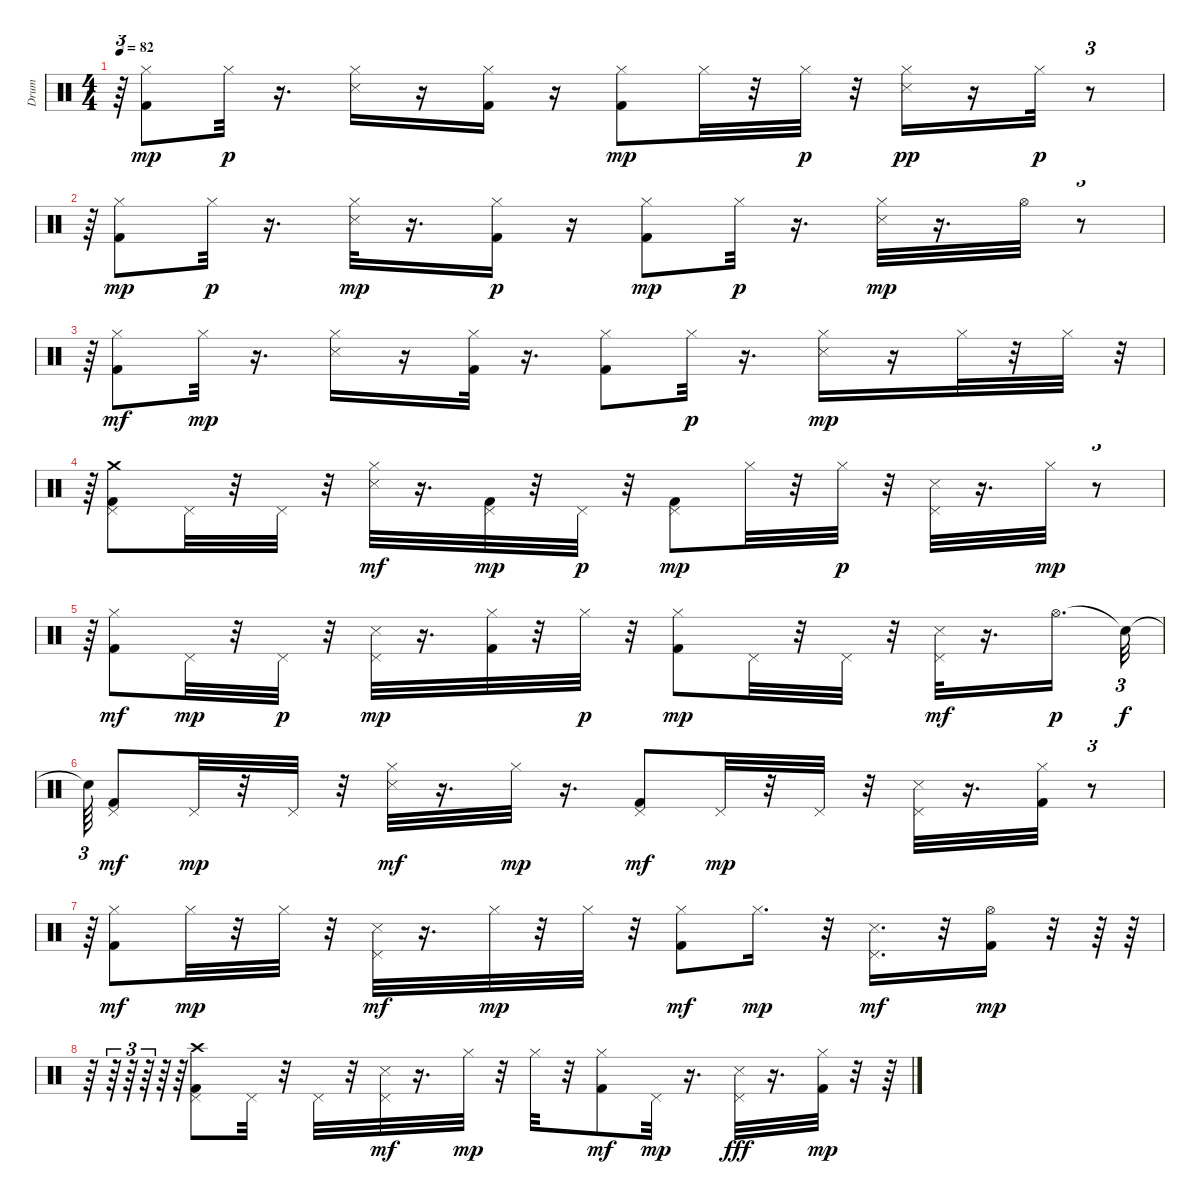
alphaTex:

\track ("Drum" "Drum") {instrument percussion}
\staff {score}
\articulation defaults
\ts (4 4)
\tempo 82
\clef neutral
\ks c
r.64{tu (3 2) dy pp} ("Kick (hit) 2" "Hi-Hat (closed)").8{dy mp} "Hi-Hat (closed)".32{dy p} r.16{d} ("Snare (side stick) 3" "Hi-Hat (closed)").16 r.16 ("Kick (hit) 2" "Hi-Hat (closed)").16 r.16 ("Kick (hit) 2" "Hi-Hat (closed)").8{dy mp} "Hi-Hat (closed)".32 r.32 "Hi-Hat (closed)".32{dy p} r.32 ("Snare (side stick) 3" "Hi-Hat (closed)").16{dy pp} r.16 "Hi-Hat (closed)".32{dy p} r.8{tu (3 2)} |
r.64{tu (3 2)} ("Kick (hit) 2" "Hi-Hat (closed)").8{dy mp} "Hi-Hat (closed)".32{dy p} r.16{d} ("Snare (side stick) 3" "Hi-Hat (closed)").32{dy mp} r.16{d} ("Kick (hit) 2" "Hi-Hat (closed)").16{dy p} r.16 ("Kick (hit) 2" "Hi-Hat (closed)").8{dy mp} "Hi-Hat (closed)".32{dy p} r.16{d} ("Snare (side stick) 3" "Hi-Hat (closed)").32{dy mp} r.16{d} "Hi-Hat (open)".32 r.8{tu (3 2)} |
r.64{tu (3 2)} ("Kick (hit) 2" "Hi-Hat (closed)").8{dy mf} "Hi-Hat (closed)".32{dy mp} r.16{d} ("Snare (side stick) 3" "Hi-Hat (closed)").16 r.16 ("Kick (hit) 2" "Hi-Hat (closed)").32 r.16{d} ("Kick (hit) 2" "Hi-Hat (closed)").8 "Hi-Hat (closed)".32{dy p} r.16{d} ("Snare (side stick) 3" "Hi-Hat (closed)").16{dy mp} r.16 "Hi-Hat (closed)".32 r.32 "Hi-Hat (closed)".32 r.32{tu (3 2)} |
r.64{tu (3 2)} ("Kick (hit) 2" "Pedal Hi-Hat (hit)" "Crash medium (hit)").8 "Pedal Hi-Hat (hit)".32 r.32 "Pedal Hi-Hat (hit)".32 r.32 ("Snare (side stick) 3" "Hi-Hat (closed)").32{dy mf} r.16{d} ("Kick (hit) 2" "Pedal Hi-Hat (hit)").32{dy mp} r.32 "Pedal Hi-Hat (hit)".32{dy p} r.32 ("Kick (hit) 2" "Pedal Hi-Hat (hit)").8{dy mp} "Hi-Hat (closed)".32 r.32 "Hi-Hat (closed)".32{dy p} r.32 ("Snare (side stick) 3" "Pedal Hi-Hat (hit)").32 r.16{d} "Hi-Hat (closed)".32{dy mp} r.8{tu (3 2)} |
r.64{tu (3 2)} ("Kick (hit) 2" "Hi-Hat (closed)").8{dy mf} "Pedal Hi-Hat (hit)".32{dy mp} r.32 "Pedal Hi-Hat (hit)".32{dy p} r.32 ("Snare (side stick) 3" "Pedal Hi-Hat (hit)").32{dy mp} r.16{d} ("Kick (hit) 2" "Hi-Hat (closed)").32 r.32 "Hi-Hat (closed)".32{dy p} r.32 ("Kick (hit) 2" "Hi-Hat (closed)").8{dy mp} "Pedal Hi-Hat (hit)".32 r.32 "Pedal Hi-Hat (hit)".32 r.32 ("Snare (side stick) 3" "Pedal Hi-Hat (hit)").32{dy mf} r.16{d} "Hi-Hat (open)".16{d dy p} "Snare (hit)"{t}.32{tu (3 2) dy f} |
"Snare (hit)"{t}.64{tu (3 2)} ("Kick (hit) 2" "Pedal Hi-Hat (hit)").8{dy mf} "Pedal Hi-Hat (hit)".32{dy mp} r.32 "Pedal Hi-Hat (hit)".32 r.32 ("Snare (side stick) 3" "Hi-Hat (closed)").32{dy mf} r.16{d} "Hi-Hat (closed)".32{dy mp} r.16{d} ("Kick (hit) 2" "Pedal Hi-Hat (hit)").8{dy mf} "Pedal Hi-Hat (hit)".32{dy mp} r.32 "Pedal Hi-Hat (hit)".32 r.32 ("Snare (side stick) 3" "Pedal Hi-Hat (hit)").32 r.16{d} ("Kick (hit) 2" "Hi-Hat (closed)").32 r.8{tu (3 2)} |
r.64{tu (3 2)} ("Kick (hit) 2" "Hi-Hat (closed)").8{dy mf} "Hi-Hat (closed)".32{dy mp} r.32 "Hi-Hat (closed)".32 r.32 ("Snare (side stick) 3" "Pedal Hi-Hat (hit)").32{dy mf} r.16{d} "Hi-Hat (closed)".32{dy mp} r.32 "Hi-Hat (closed)".32 r.32 ("Kick (hit) 2" "Hi-Hat (closed)").8{dy mf} "Hi-Hat (closed)".16{d dy mp} r.32 ("Snare (side stick) 3" "Pedal Hi-Hat (hit)").16{d dy mf} r.32 ("Kick (hit) 2" "Hi-Hat (open)").16{dy mp} r.32 r.64 r.64 |
r.64 r.64{tu (3 2)} r.64{tu (3 2)} r.64{tu (3 2)} r.64{tu (3 2)} r.64{tu (3 2)} ("Kick (hit) 2" "Pedal Hi-Hat (hit)" "Crash high (hit)").8 "Pedal Hi-Hat (hit)".32 r.32 "Pedal Hi-Hat (hit)".32 r.32 ("Snare (side stick) 3" "Pedal Hi-Hat (hit)").32{dy mf} r.16{d} "Hi-Hat (closed)".32{dy mp} r.32 "Hi-Hat (closed)".32 r.32 ("Kick (hit) 2" "Hi-Hat (closed)").8{dy mf} "Pedal Hi-Hat (hit)".32{dy mp} r.16{d} ("Snare (side stick) 3" "Pedal Hi-Hat (hit)").32{dy fff} r.16{d} ("Kick (hit) 2" "Hi-Hat (closed)").32{dy mp} r.32 r.64
